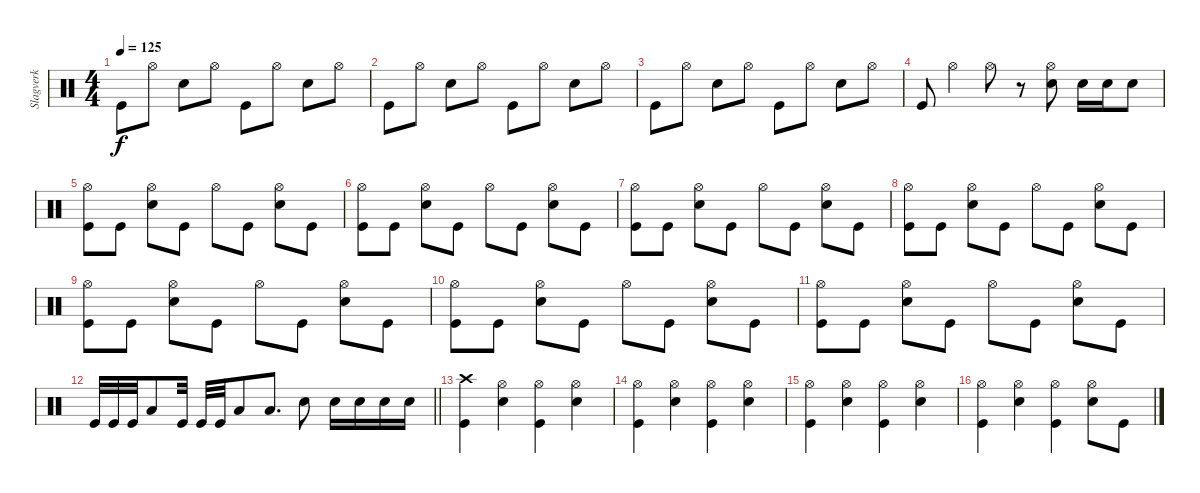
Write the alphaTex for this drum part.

\track ("Slagverk" "Slagverk") {instrument percussion}
\staff {score}
\articulation defaults
\ts (4 4)
\tempo 125
\clef neutral
\ks c "Kick (hit)".8{dy f} "Hi-Hat (open)".8 "Snare (hit) 2".8 "Hi-Hat (open)".8 "Kick (hit)".8 "Hi-Hat (open)".8 "Snare (hit) 2".8 "Hi-Hat (open)".8
|
"Kick (hit)".8 "Hi-Hat (open)".8 "Snare (hit) 2".8 "Hi-Hat (open)".8 "Kick (hit)".8 "Hi-Hat (open)".8 "Snare (hit) 2".8 "Hi-Hat (open)".8 |
"Kick (hit)".8 "Hi-Hat (open)".8 "Snare (hit) 2".8 "Hi-Hat (open)".8 "Kick (hit)".8 "Hi-Hat (open)".8 "Snare (hit) 2".8 "Hi-Hat (open)".8 |
"Kick (hit)".8 "Hi-Hat (open)".4 "Hi-Hat (open)".8 r.8 ("Hi-Hat (open)" "Snare (hit) 2").8 "Snare (hit) 2".16 "Snare (hit) 2".16 "Snare (hit) 2".8 |
("Hi-Hat (open)" "Kick (hit)").8 "Kick (hit)".8 ("Hi-Hat (open)" "Snare (hit) 2").8 "Kick (hit)".8 "Hi-Hat (open)".8 "Kick (hit)".8 ("Hi-Hat (open)" "Snare (hit) 2").8 "Kick (hit)".8 |
("Hi-Hat (open)" "Kick (hit)").8 "Kick (hit)".8 ("Hi-Hat (open)" "Snare (hit) 2").8 "Kick (hit)".8 "Hi-Hat (open)".8 "Kick (hit)".8 ("Hi-Hat (open)" "Snare (hit) 2").8 "Kick (hit)".8 |
("Hi-Hat (open)" "Kick (hit)").8 "Kick (hit)".8 ("Hi-Hat (open)" "Snare (hit) 2").8 "Kick (hit)".8 "Hi-Hat (open)".8 "Kick (hit)".8 ("Hi-Hat (open)" "Snare (hit) 2").8 "Kick (hit)".8 |
("Hi-Hat (open)" "Kick (hit)").8 "Kick (hit)".8 ("Hi-Hat (open)" "Snare (hit) 2").8 "Kick (hit)".8 "Hi-Hat (open)".8 "Kick (hit)".8 ("Hi-Hat (open)" "Snare (hit) 2").8 "Kick (hit)".8 |
("Hi-Hat (open)" "Kick (hit)").8 "Kick (hit)".8 ("Hi-Hat (open)" "Snare (hit) 2").8 "Kick (hit)".8 "Hi-Hat (open)".8 "Kick (hit)".8 ("Hi-Hat (open)" "Snare (hit) 2").8 "Kick (hit)".8 |
("Hi-Hat (open)" "Kick (hit)").8 "Kick (hit)".8 ("Hi-Hat (open)" "Snare (hit) 2").8 "Kick (hit)".8 "Hi-Hat (open)".8 "Kick (hit)".8 ("Hi-Hat (open)" "Snare (hit) 2").8 "Kick (hit)".8 |
("Hi-Hat (open)" "Kick (hit)").8 "Kick (hit)".8 ("Hi-Hat (open)" "Snare (hit) 2").8 "Kick (hit)".8 "Hi-Hat (open)".8 "Kick (hit)".8 ("Hi-Hat (open)" "Snare (hit) 2").8 "Kick (hit)".8 |
\barLineRight lightlight "Kick (hit)".32 "Kick (hit)".32 "Kick (hit)".32 "Low Tom (hit)".8 "Kick (hit)".32 "Kick (hit)".32 "Kick (hit)".32 "Low Tom (hit)".8 "Low Tom (hit)".8{d} "Snare (hit) 2".8 "Snare (hit) 2".16 "Snare (hit) 2".16 "Snare (hit) 2".16 "Snare (hit) 2".16
|
("Crash high (hit)" "Kick (hit)").4 ("Hi-Hat (open)" "Snare (hit) 2").4 ("Hi-Hat (open)" "Kick (hit)").4 ("Hi-Hat (open)" "Snare (hit) 2").4 |
("Hi-Hat (open)" "Kick (hit)").4 ("Hi-Hat (open)" "Snare (hit) 2").4 ("Hi-Hat (open)" "Kick (hit)").4 ("Hi-Hat (open)" "Snare (hit) 2").4 |
("Hi-Hat (open)" "Kick (hit)").4 ("Hi-Hat (open)" "Snare (hit) 2").4 ("Hi-Hat (open)" "Kick (hit)").4 ("Hi-Hat (open)" "Snare (hit) 2").4 |
("Hi-Hat (open)" "Kick (hit)").4 ("Hi-Hat (open)" "Snare (hit) 2").4 ("Hi-Hat (open)" "Kick (hit)").4 ("Hi-Hat (open)" "Snare (hit) 2").8 "Kick (hit)".8
